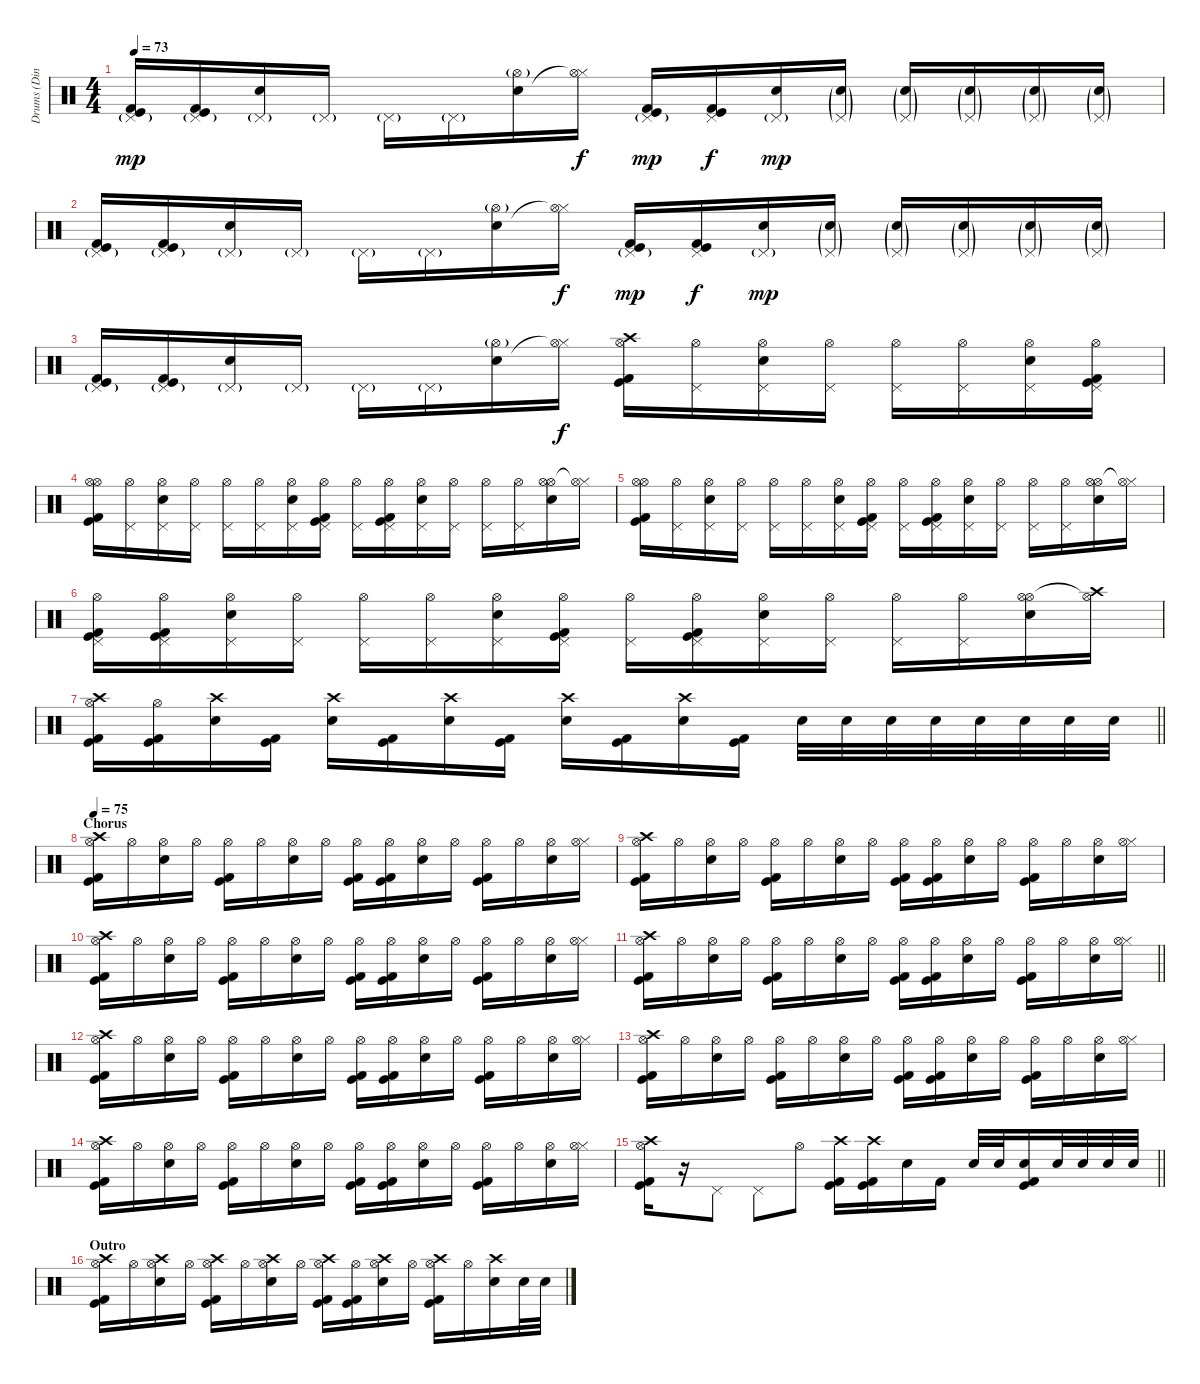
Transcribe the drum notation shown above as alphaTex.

\track ("Drums (Din-din)" "Drums (Din") {instrument percussion}
\staff {score}
\articulation defaults
\ts (4 4)
\tempo 73
\clef neutral
\ks c
("Pedal Hi-Hat (hit)"{g} "Kick (hit)" "Kick (hit) 2").16{dy mp} ("Pedal Hi-Hat (hit)"{g} "Kick (hit)" "Kick (hit) 2").16 ("Pedal Hi-Hat (hit)"{g} "Snare (hit) 2").16 "Pedal Hi-Hat (hit)"{g}.16 "Pedal Hi-Hat (hit)"{g}.16 "Pedal Hi-Hat (hit)"{g}.16 ("Hi-Hat (open)"{g} "Snare (hit) 2").16 ("Hi-Hat (closed)" "Hi-Hat (open)"{t}).16{dy f} ("Pedal Hi-Hat (hit)"{g} "Kick (hit)" "Kick (hit) 2").16{dy mp} ("Pedal Hi-Hat (hit)" "Kick (hit)" "Kick (hit) 2").16{dy f} ("Pedal Hi-Hat (hit)"{g} "Snare (hit) 2").16{dy mp} ("Pedal Hi-Hat (hit)"{g} "Snare (hit) 2"{g}).16 ("Pedal Hi-Hat (hit)"{g} "Snare (hit) 2"{g}).16 ("Pedal Hi-Hat (hit)"{g} "Snare (hit) 2"{g}).16 ("Pedal Hi-Hat (hit)"{g} "Snare (hit) 2"{g}).16 ("Pedal Hi-Hat (hit)"{g} "Snare (hit) 2"{g}).16 |
("Pedal Hi-Hat (hit)"{g} "Kick (hit)" "Kick (hit) 2").16 ("Pedal Hi-Hat (hit)"{g} "Kick (hit)" "Kick (hit) 2").16 ("Pedal Hi-Hat (hit)"{g} "Snare (hit) 2").16 "Pedal Hi-Hat (hit)"{g}.16 "Pedal Hi-Hat (hit)"{g}.16 "Pedal Hi-Hat (hit)"{g}.16 ("Hi-Hat (open)"{g} "Snare (hit) 2").16 ("Hi-Hat (closed)" "Hi-Hat (open)"{t}).16{dy f} ("Pedal Hi-Hat (hit)"{g} "Kick (hit)" "Kick (hit) 2").16{dy mp} ("Pedal Hi-Hat (hit)" "Kick (hit)" "Kick (hit) 2").16{dy f} ("Pedal Hi-Hat (hit)"{g} "Snare (hit) 2").16{dy mp} ("Pedal Hi-Hat (hit)"{g} "Snare (hit) 2"{g}).16 ("Pedal Hi-Hat (hit)"{g} "Snare (hit) 2"{g}).16 ("Pedal Hi-Hat (hit)"{g} "Snare (hit) 2"{g}).16 ("Pedal Hi-Hat (hit)"{g} "Snare (hit) 2"{g}).16 ("Pedal Hi-Hat (hit)"{g} "Snare (hit) 2"{g}).16 |
("Pedal Hi-Hat (hit)"{g} "Kick (hit)" "Kick (hit) 2").16 ("Pedal Hi-Hat (hit)"{g} "Kick (hit)" "Kick (hit) 2").16 ("Pedal Hi-Hat (hit)"{g} "Snare (hit) 2").16 "Pedal Hi-Hat (hit)"{g}.16 "Pedal Hi-Hat (hit)"{g}.16 "Pedal Hi-Hat (hit)"{g}.16 ("Hi-Hat (open)"{g} "Snare (hit) 2").16 ("Hi-Hat (closed)" "Hi-Hat (open)"{t}).16{dy f} ("Crash high (hit)" "Hi-Hat (open)" "Kick (hit)" "Kick (hit) 2").16 ("Hi-Hat (open)" "Pedal Hi-Hat (hit)").16 ("Hi-Hat (open)" "Pedal Hi-Hat (hit)" "Snare (hit) 2").16 ("Hi-Hat (open)" "Pedal Hi-Hat (hit)").16 ("Hi-Hat (open)" "Pedal Hi-Hat (hit)").16 ("Hi-Hat (open)" "Pedal Hi-Hat (hit)").16 ("Hi-Hat (open)" "Pedal Hi-Hat (hit)" "Snare (hit) 2").16 ("Hi-Hat (open)" "Pedal Hi-Hat (hit)" "Kick (hit)" "Kick (hit) 2").16 |
("Hi-Hat (open)" "Hi-Hat (open)" "Kick (hit)" "Kick (hit) 2").16 ("Hi-Hat (open)" "Pedal Hi-Hat (hit)").16 ("Hi-Hat (open)" "Pedal Hi-Hat (hit)" "Snare (hit) 2").16 ("Hi-Hat (open)" "Pedal Hi-Hat (hit)").16 ("Hi-Hat (open)" "Pedal Hi-Hat (hit)").16 ("Hi-Hat (open)" "Pedal Hi-Hat (hit)").16 ("Hi-Hat (open)" "Pedal Hi-Hat (hit)" "Snare (hit) 2").16 ("Hi-Hat (open)" "Pedal Hi-Hat (hit)" "Kick (hit)" "Kick (hit) 2").16 ("Hi-Hat (open)" "Pedal Hi-Hat (hit)").16 ("Hi-Hat (open)" "Pedal Hi-Hat (hit)" "Kick (hit)" "Kick (hit) 2").16 ("Hi-Hat (open)" "Pedal Hi-Hat (hit)" "Snare (hit) 2").16 ("Hi-Hat (open)" "Pedal Hi-Hat (hit)").16 ("Hi-Hat (open)" "Pedal Hi-Hat (hit)").16 ("Hi-Hat (open)" "Pedal Hi-Hat (hit)").16 ("Hi-Hat (open)" "Hi-Hat (open)" "Snare (hit) 2").16 ("Hi-Hat (closed)" "Hi-Hat (open)"{t}).16 |
("Hi-Hat (open)" "Hi-Hat (open)" "Kick (hit)" "Kick (hit) 2").16 ("Hi-Hat (open)" "Pedal Hi-Hat (hit)").16 ("Hi-Hat (open)" "Pedal Hi-Hat (hit)" "Snare (hit) 2").16 ("Hi-Hat (open)" "Pedal Hi-Hat (hit)").16 ("Hi-Hat (open)" "Pedal Hi-Hat (hit)").16 ("Hi-Hat (open)" "Pedal Hi-Hat (hit)").16 ("Hi-Hat (open)" "Pedal Hi-Hat (hit)" "Snare (hit) 2").16 ("Hi-Hat (open)" "Pedal Hi-Hat (hit)" "Kick (hit)" "Kick (hit) 2").16 ("Hi-Hat (open)" "Pedal Hi-Hat (hit)").16 ("Hi-Hat (open)" "Pedal Hi-Hat (hit)" "Kick (hit)" "Kick (hit) 2").16 ("Hi-Hat (open)" "Pedal Hi-Hat (hit)" "Snare (hit) 2").16 ("Hi-Hat (open)" "Pedal Hi-Hat (hit)").16 ("Hi-Hat (open)" "Pedal Hi-Hat (hit)").16 ("Hi-Hat (open)" "Pedal Hi-Hat (hit)").16 ("Hi-Hat (open)" "Hi-Hat (open)" "Snare (hit) 2").16 ("Hi-Hat (closed)" "Hi-Hat (open)"{t}).16 |
("Hi-Hat (open)" "Pedal Hi-Hat (hit)" "Kick (hit)" "Kick (hit) 2").16 ("Hi-Hat (open)" "Pedal Hi-Hat (hit)" "Kick (hit)" "Kick (hit) 2").16 ("Hi-Hat (open)" "Pedal Hi-Hat (hit)" "Snare (hit) 2").16 ("Hi-Hat (open)" "Pedal Hi-Hat (hit)").16 ("Hi-Hat (open)" "Pedal Hi-Hat (hit)").16 ("Hi-Hat (open)" "Pedal Hi-Hat (hit)").16 ("Hi-Hat (open)" "Pedal Hi-Hat (hit)" "Snare (hit) 2").16 ("Hi-Hat (open)" "Pedal Hi-Hat (hit)" "Kick (hit)" "Kick (hit) 2").16 ("Hi-Hat (open)" "Pedal Hi-Hat (hit)").16 ("Hi-Hat (open)" "Pedal Hi-Hat (hit)" "Kick (hit)" "Kick (hit) 2").16 ("Hi-Hat (open)" "Pedal Hi-Hat (hit)" "Snare (hit) 2").16 ("Hi-Hat (open)" "Pedal Hi-Hat (hit)").16 ("Hi-Hat (open)" "Pedal Hi-Hat (hit)").16 ("Hi-Hat (open)" "Pedal Hi-Hat (hit)").16 ("Hi-Hat (open)" "Hi-Hat (open)" "Snare (hit) 2").16 ("Crash high (hit)" "Hi-Hat (open)"{t}).16 |
\barLineRight lightlight
("Crash high (hit)" "Hi-Hat (open)" "Kick (hit)" "Kick (hit) 2").16 ("Hi-Hat (open)" "Kick (hit)" "Kick (hit) 2").16 ("Crash high (hit)" "Snare (hit) 2").16 ("Kick (hit)" "Kick (hit) 2").16 ("Crash high (hit)" "Snare (hit) 2").16 ("Kick (hit)" "Kick (hit) 2").16 ("Crash high (hit)" "Snare (hit) 2").16 ("Kick (hit)" "Kick (hit) 2").16 ("Crash high (hit)" "Snare (hit) 2").16 ("Kick (hit)" "Kick (hit) 2").16 ("Crash high (hit)" "Snare (hit) 2").16 ("Kick (hit)" "Kick (hit) 2").16 "Snare (hit) 2".32 "Snare (hit) 2".32 "Snare (hit) 2".32 "Snare (hit) 2".32 "Snare (hit) 2".32 "Snare (hit) 2".32 "Snare (hit) 2".32 "Snare (hit) 2".32 |
\section ("" "Chorus")
\tempo 75
("Crash high (hit)" "Hi-Hat (open)" "Kick (hit)" "Kick (hit) 2").16 "Hi-Hat (open)".16 ("Hi-Hat (open)" "Snare (hit) 2").16 "Hi-Hat (open)".16 ("Hi-Hat (open)" "Kick (hit)" "Kick (hit) 2").16 "Hi-Hat (open)".16 ("Hi-Hat (open)" "Snare (hit) 2").16 "Hi-Hat (open)".16 ("Hi-Hat (open)" "Kick (hit)" "Kick (hit) 2").16 ("Hi-Hat (open)" "Kick (hit)" "Kick (hit) 2").16 ("Hi-Hat (open)" "Snare (hit) 2").16 "Hi-Hat (open)".16 ("Hi-Hat (open)" "Kick (hit)" "Kick (hit) 2").16 "Hi-Hat (open)".16 ("Hi-Hat (open)" "Snare (hit) 2").16 ("Hi-Hat (closed)" "Hi-Hat (open)").16 |
("Crash high (hit)" "Hi-Hat (open)" "Kick (hit)" "Kick (hit) 2").16 "Hi-Hat (open)".16 ("Hi-Hat (open)" "Snare (hit) 2").16 "Hi-Hat (open)".16 ("Hi-Hat (open)" "Kick (hit)" "Kick (hit) 2").16 "Hi-Hat (open)".16 ("Hi-Hat (open)" "Snare (hit) 2").16 "Hi-Hat (open)".16 ("Hi-Hat (open)" "Kick (hit)" "Kick (hit) 2").16 ("Hi-Hat (open)" "Kick (hit)" "Kick (hit) 2").16 ("Hi-Hat (open)" "Snare (hit) 2").16 "Hi-Hat (open)".16 ("Hi-Hat (open)" "Kick (hit)" "Kick (hit) 2").16 "Hi-Hat (open)".16 ("Hi-Hat (open)" "Snare (hit) 2").16 ("Hi-Hat (closed)" "Hi-Hat (open)").16 |
("Crash high (hit)" "Hi-Hat (open)" "Kick (hit)" "Kick (hit) 2").16 "Hi-Hat (open)".16 ("Hi-Hat (open)" "Snare (hit) 2").16 "Hi-Hat (open)".16 ("Hi-Hat (open)" "Kick (hit)" "Kick (hit) 2").16 "Hi-Hat (open)".16 ("Hi-Hat (open)" "Snare (hit) 2").16 "Hi-Hat (open)".16 ("Hi-Hat (open)" "Kick (hit)" "Kick (hit) 2").16 ("Hi-Hat (open)" "Kick (hit)" "Kick (hit) 2").16 ("Hi-Hat (open)" "Snare (hit) 2").16 "Hi-Hat (open)".16 ("Hi-Hat (open)" "Kick (hit)" "Kick (hit) 2").16 "Hi-Hat (open)".16 ("Hi-Hat (open)" "Snare (hit) 2").16 ("Hi-Hat (closed)" "Hi-Hat (open)").16 |
\barLineRight lightlight
("Crash high (hit)" "Hi-Hat (open)" "Kick (hit)" "Kick (hit) 2").16 "Hi-Hat (open)".16 ("Hi-Hat (open)" "Snare (hit) 2").16 "Hi-Hat (open)".16 ("Hi-Hat (open)" "Kick (hit)" "Kick (hit) 2").16 "Hi-Hat (open)".16 ("Hi-Hat (open)" "Snare (hit) 2").16 "Hi-Hat (open)".16 ("Hi-Hat (open)" "Kick (hit)" "Kick (hit) 2").16 ("Hi-Hat (open)" "Kick (hit)" "Kick (hit) 2").16 ("Hi-Hat (open)" "Snare (hit) 2").16 "Hi-Hat (open)".16 ("Hi-Hat (open)" "Kick (hit)" "Kick (hit) 2").16 "Hi-Hat (open)".16 ("Hi-Hat (open)" "Snare (hit) 2").16 ("Hi-Hat (closed)" "Hi-Hat (open)").16 |
("Crash high (hit)" "Hi-Hat (open)" "Kick (hit)" "Kick (hit) 2").16 "Hi-Hat (open)".16 ("Hi-Hat (open)" "Snare (hit) 2").16 "Hi-Hat (open)".16 ("Hi-Hat (open)" "Kick (hit)" "Kick (hit) 2").16 "Hi-Hat (open)".16 ("Hi-Hat (open)" "Snare (hit) 2").16 "Hi-Hat (open)".16 ("Hi-Hat (open)" "Kick (hit)" "Kick (hit) 2").16 ("Hi-Hat (open)" "Kick (hit)" "Kick (hit) 2").16 ("Hi-Hat (open)" "Snare (hit) 2").16 "Hi-Hat (open)".16 ("Hi-Hat (open)" "Kick (hit)" "Kick (hit) 2").16 "Hi-Hat (open)".16 ("Hi-Hat (open)" "Snare (hit) 2").16 ("Hi-Hat (closed)" "Hi-Hat (open)").16 |
("Crash high (hit)" "Hi-Hat (open)" "Kick (hit)" "Kick (hit) 2").16 "Hi-Hat (open)".16 ("Hi-Hat (open)" "Snare (hit) 2").16 "Hi-Hat (open)".16 ("Hi-Hat (open)" "Kick (hit)" "Kick (hit) 2").16 "Hi-Hat (open)".16 ("Hi-Hat (open)" "Snare (hit) 2").16 "Hi-Hat (open)".16 ("Hi-Hat (open)" "Kick (hit)" "Kick (hit) 2").16 ("Hi-Hat (open)" "Kick (hit)" "Kick (hit) 2").16 ("Hi-Hat (open)" "Snare (hit) 2").16 "Hi-Hat (open)".16 ("Hi-Hat (open)" "Kick (hit)" "Kick (hit) 2").16 "Hi-Hat (open)".16 ("Hi-Hat (open)" "Snare (hit) 2").16 ("Hi-Hat (closed)" "Hi-Hat (open)").16 |
("Crash high (hit)" "Hi-Hat (open)" "Kick (hit)" "Kick (hit) 2").16 "Hi-Hat (open)".16 ("Hi-Hat (open)" "Snare (hit) 2").16 "Hi-Hat (open)".16 ("Hi-Hat (open)" "Kick (hit)" "Kick (hit) 2").16 "Hi-Hat (open)".16 ("Hi-Hat (open)" "Snare (hit) 2").16 "Hi-Hat (open)".16 ("Hi-Hat (open)" "Kick (hit)" "Kick (hit) 2").16 ("Hi-Hat (open)" "Kick (hit)" "Kick (hit) 2").16 ("Hi-Hat (open)" "Snare (hit) 2").16 "Hi-Hat (open)".16 ("Hi-Hat (open)" "Kick (hit)" "Kick (hit) 2").16 "Hi-Hat (open)".16 ("Hi-Hat (open)" "Snare (hit) 2").16 ("Hi-Hat (closed)" "Hi-Hat (open)").16 |
\barLineRight lightlight
("Crash high (hit)" "Hi-Hat (open)" "Kick (hit)" "Kick (hit) 2").16 r.16 "Pedal Hi-Hat (hit)".8 "Pedal Hi-Hat (hit)".8 "Hi-Hat (open)".8 ("Crash high (hit)" "Kick (hit)" "Kick (hit) 2").16 ("Crash high (hit)" "Kick (hit)" "Kick (hit) 2").16 "Snare (hit) 2".16 "Kick (hit) 2".16 "Snare (hit) 2".32 "Snare (hit) 2".32 ("Snare (hit) 2" "Kick (hit)" "Kick (hit) 2").16 "Snare (hit) 2".32 "Snare (hit) 2".32 "Snare (hit) 2".32 "Snare (hit) 2".32 |
\section ("" "Outro")
("Crash high (hit)" "Hi-Hat (open)" "Kick (hit)" "Kick (hit) 2").16 "Hi-Hat (open)".16 ("Crash high (hit)" "Hi-Hat (open)" "Snare (hit) 2").16 "Hi-Hat (open)".16 ("Crash high (hit)" "Hi-Hat (open)" "Kick (hit)" "Kick (hit) 2").16 "Hi-Hat (open)".16 ("Crash high (hit)" "Hi-Hat (open)" "Snare (hit) 2").16 "Hi-Hat (open)".16 ("Crash high (hit)" "Hi-Hat (open)" "Kick (hit)" "Kick (hit) 2").16 ("Hi-Hat (open)" "Kick (hit)" "Kick (hit) 2").16 ("Crash high (hit)" "Hi-Hat (open)" "Snare (hit) 2").16 "Hi-Hat (open)".16 ("Crash high (hit)" "Hi-Hat (open)" "Kick (hit)" "Kick (hit) 2").16 "Hi-Hat (open)".16 ("Crash high (hit)" "Snare (hit) 2").16 "Snare (hit) 2".32 "Snare (hit) 2".32
